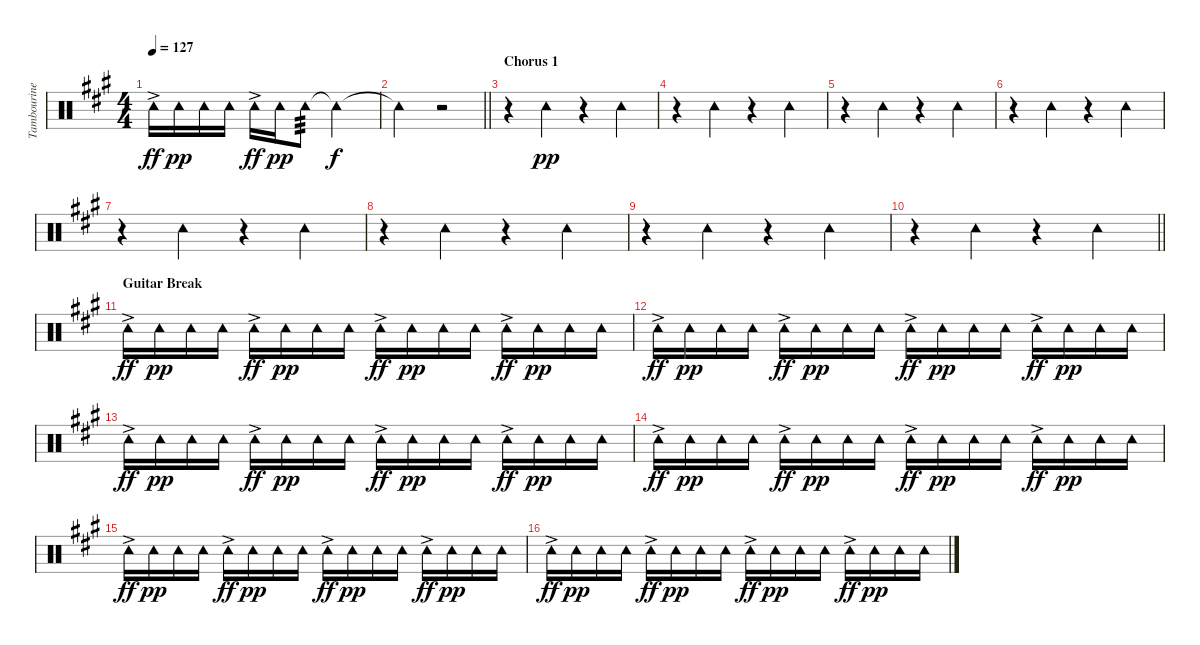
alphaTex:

\track ("Tambourine" "Tambourine") {instrument percussion}
\staff {score}
\articulation defaults
\ts (4 4)
\tempo 127
\clef neutral
\ks a "Tambourine (hit)"{ac}.16{dy ff} "Tambourine (hit)".16{dy pp} "Tambourine (hit)".16 "Tambourine (hit)".16 "Tambourine (hit)"{ac}.16{dy ff} "Tambourine (hit)".16{dy pp} "Tambourine (hit)".8{tp 3} "Tambourine (hit)"{t}.2{dy f}
|
\barLineRight lightlight "Tambourine (hit)"{t}.2
r.2 |
\section ("" "Chorus 1")
r.4{volume 9} "Tambourine (hit)".4{dy pp} r.4 "Tambourine (hit)".4 |
r.4 "Tambourine (hit)".4 r.4 "Tambourine (hit)".4 |
r.4 "Tambourine (hit)".4 r.4 "Tambourine (hit)".4 |
r.4 "Tambourine (hit)".4 r.4 "Tambourine (hit)".4 |
r.4 "Tambourine (hit)".4 r.4 "Tambourine (hit)".4 |
r.4 "Tambourine (hit)".4 r.4 "Tambourine (hit)".4 |
r.4 "Tambourine (hit)".4 r.4 "Tambourine (hit)".4 |
\barLineRight lightlight
r.4 "Tambourine (hit)".4 r.4 "Tambourine (hit)".4 |
\section ("" "Guitar Break")
"Tambourine (hit)"{ac}.16{dy ff volume 5} "Tambourine (hit)".16{dy pp} "Tambourine (hit)".16 "Tambourine (hit)".16 "Tambourine (hit)"{ac}.16{dy ff} "Tambourine (hit)".16{dy pp} "Tambourine (hit)".16 "Tambourine (hit)".16 "Tambourine (hit)"{ac}.16{dy ff} "Tambourine (hit)".16{dy pp} "Tambourine (hit)".16 "Tambourine (hit)".16 "Tambourine (hit)"{ac}.16{dy ff} "Tambourine (hit)".16{dy pp} "Tambourine (hit)".16 "Tambourine (hit)".16 |
"Tambourine (hit)"{ac}.16{dy ff} "Tambourine (hit)".16{dy pp} "Tambourine (hit)".16 "Tambourine (hit)".16 "Tambourine (hit)"{ac}.16{dy ff} "Tambourine (hit)".16{dy pp} "Tambourine (hit)".16 "Tambourine (hit)".16 "Tambourine (hit)"{ac}.16{dy ff} "Tambourine (hit)".16{dy pp} "Tambourine (hit)".16 "Tambourine (hit)".16 "Tambourine (hit)"{ac}.16{dy ff} "Tambourine (hit)".16{dy pp} "Tambourine (hit)".16 "Tambourine (hit)".16 |
"Tambourine (hit)"{ac}.16{dy ff} "Tambourine (hit)".16{dy pp} "Tambourine (hit)".16 "Tambourine (hit)".16 "Tambourine (hit)"{ac}.16{dy ff} "Tambourine (hit)".16{dy pp} "Tambourine (hit)".16 "Tambourine (hit)".16 "Tambourine (hit)"{ac}.16{dy ff} "Tambourine (hit)".16{dy pp} "Tambourine (hit)".16 "Tambourine (hit)".16 "Tambourine (hit)"{ac}.16{dy ff} "Tambourine (hit)".16{dy pp} "Tambourine (hit)".16 "Tambourine (hit)".16 |
"Tambourine (hit)"{ac}.16{dy ff} "Tambourine (hit)".16{dy pp} "Tambourine (hit)".16 "Tambourine (hit)".16 "Tambourine (hit)"{ac}.16{dy ff} "Tambourine (hit)".16{dy pp} "Tambourine (hit)".16 "Tambourine (hit)".16 "Tambourine (hit)"{ac}.16{dy ff} "Tambourine (hit)".16{dy pp} "Tambourine (hit)".16 "Tambourine (hit)".16 "Tambourine (hit)"{ac}.16{dy ff} "Tambourine (hit)".16{dy pp} "Tambourine (hit)".16 "Tambourine (hit)".16 |
"Tambourine (hit)"{ac}.16{dy ff} "Tambourine (hit)".16{dy pp} "Tambourine (hit)".16 "Tambourine (hit)".16 "Tambourine (hit)"{ac}.16{dy ff} "Tambourine (hit)".16{dy pp} "Tambourine (hit)".16 "Tambourine (hit)".16 "Tambourine (hit)"{ac}.16{dy ff} "Tambourine (hit)".16{dy pp} "Tambourine (hit)".16 "Tambourine (hit)".16 "Tambourine (hit)"{ac}.16{dy ff} "Tambourine (hit)".16{dy pp} "Tambourine (hit)".16 "Tambourine (hit)".16 |
"Tambourine (hit)"{ac}.16{dy ff} "Tambourine (hit)".16{dy pp} "Tambourine (hit)".16 "Tambourine (hit)".16 "Tambourine (hit)"{ac}.16{dy ff} "Tambourine (hit)".16{dy pp} "Tambourine (hit)".16 "Tambourine (hit)".16 "Tambourine (hit)"{ac}.16{dy ff} "Tambourine (hit)".16{dy pp} "Tambourine (hit)".16 "Tambourine (hit)".16 "Tambourine (hit)"{ac}.16{dy ff} "Tambourine (hit)".16{dy pp} "Tambourine (hit)".16 "Tambourine (hit)".16
